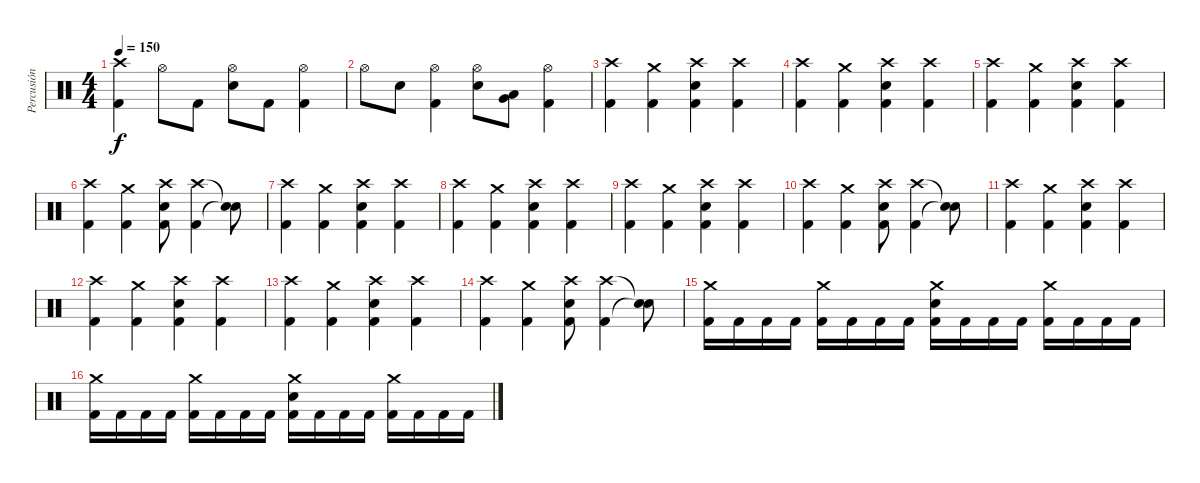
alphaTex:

\track ("Percusión" "Percusión") {instrument percussion}
\staff {score}
\articulation defaults
\ts (4 4)
\tempo 150
\clef neutral
\ks c
("Crash high (hit)" "Kick (hit) 2").4{dy f} "Hi-Hat (open)".8 "Kick (hit) 2".8 ("Hi-Hat (open)" "Snare (hit) 2").8 "Kick (hit) 2".8 ("Hi-Hat (open)" "Kick (hit) 2").4 |
"Hi-Hat (open)".8 "Snare (hit) 2".8 ("Hi-Hat (open)" "Kick (hit) 2").4 ("Hi-Hat (open)" "Snare (hit) 2").8 ("Low Floor Tom (hit)" "Very Low Tom (hit)").8 ("Hi-Hat (open)" "Kick (hit) 2").4 |
("Crash high (hit)" "Kick (hit) 2").4 ("Crash medium (hit)" "Kick (hit) 2").4 ("Crash high (hit)" "Snare (hit) 2" "Kick (hit) 2").4 ("Crash high (hit)" "Kick (hit) 2").4 |
("Crash high (hit)" "Kick (hit) 2").4 ("Crash medium (hit)" "Kick (hit) 2").4 ("Crash high (hit)" "Snare (hit) 2" "Kick (hit) 2").4 ("Crash high (hit)" "Kick (hit) 2").4 |
("Crash high (hit)" "Kick (hit) 2").4 ("Crash medium (hit)" "Kick (hit) 2").4 ("Crash high (hit)" "Snare (hit) 2" "Kick (hit) 2").4 ("Crash high (hit)" "Kick (hit) 2").4 |
("Crash high (hit)" "Kick (hit) 2").4 ("Crash medium (hit)" "Kick (hit) 2").4 ("Crash high (hit)" "Snare (hit) 2" "Kick (hit) 2").8 ("Crash high (hit)" "Kick (hit) 2").4 ("Snare (hit)"{t} "Snare (hit)"{t}).8 |
("Crash high (hit)" "Kick (hit) 2").4 ("Crash medium (hit)" "Kick (hit) 2").4 ("Crash high (hit)" "Snare (hit) 2" "Kick (hit) 2").4 ("Crash high (hit)" "Kick (hit) 2").4 |
("Crash high (hit)" "Kick (hit) 2").4 ("Crash medium (hit)" "Kick (hit) 2").4 ("Crash high (hit)" "Snare (hit) 2" "Kick (hit) 2").4 ("Crash high (hit)" "Kick (hit) 2").4 |
("Crash high (hit)" "Kick (hit) 2").4 ("Crash medium (hit)" "Kick (hit) 2").4 ("Crash high (hit)" "Snare (hit) 2" "Kick (hit) 2").4 ("Crash high (hit)" "Kick (hit) 2").4 |
("Crash high (hit)" "Kick (hit) 2").4 ("Crash medium (hit)" "Kick (hit) 2").4 ("Crash high (hit)" "Snare (hit) 2" "Kick (hit) 2").8 ("Crash high (hit)" "Kick (hit) 2").4 ("Snare (hit)"{t} "Snare (hit)"{t}).8 |
("Crash high (hit)" "Kick (hit) 2").4 ("Crash medium (hit)" "Kick (hit) 2").4 ("Crash high (hit)" "Snare (hit) 2" "Kick (hit) 2").4 ("Crash high (hit)" "Kick (hit) 2").4 |
("Crash high (hit)" "Kick (hit) 2").4 ("Crash medium (hit)" "Kick (hit) 2").4 ("Crash high (hit)" "Snare (hit) 2" "Kick (hit) 2").4 ("Crash high (hit)" "Kick (hit) 2").4 |
("Crash high (hit)" "Kick (hit) 2").4 ("Crash medium (hit)" "Kick (hit) 2").4 ("Crash high (hit)" "Snare (hit) 2" "Kick (hit) 2").4 ("Crash high (hit)" "Kick (hit) 2").4 |
("Crash high (hit)" "Kick (hit) 2").4 ("Crash medium (hit)" "Kick (hit) 2").4 ("Crash high (hit)" "Snare (hit) 2" "Kick (hit) 2").8 ("Crash high (hit)" "Kick (hit) 2").4 ("Snare (hit)"{t} "Snare (hit)"{t}).8 |
("Crash medium (hit)" "Kick (hit) 2").16 "Kick (hit) 2".16 "Kick (hit) 2".16 "Kick (hit) 2".16 ("Crash medium (hit)" "Kick (hit) 2").16 "Kick (hit) 2".16 "Kick (hit) 2".16 "Kick (hit) 2".16 ("Snare (hit) 2" "Crash medium (hit)" "Kick (hit) 2").16 "Kick (hit) 2".16 "Kick (hit) 2".16 "Kick (hit) 2".16 ("Crash medium (hit)" "Kick (hit) 2").16 "Kick (hit) 2".16 "Kick (hit) 2".16 "Kick (hit) 2".16 |
("Crash medium (hit)" "Kick (hit) 2").16 "Kick (hit) 2".16 "Kick (hit) 2".16 "Kick (hit) 2".16 ("Crash medium (hit)" "Kick (hit) 2").16 "Kick (hit) 2".16 "Kick (hit) 2".16 "Kick (hit) 2".16 ("Snare (hit) 2" "Crash medium (hit)" "Kick (hit) 2").16 "Kick (hit) 2".16 "Kick (hit) 2".16 "Kick (hit) 2".16 ("Crash medium (hit)" "Kick (hit) 2").16 "Kick (hit) 2".16 "Kick (hit) 2".16 "Kick (hit) 2".16
